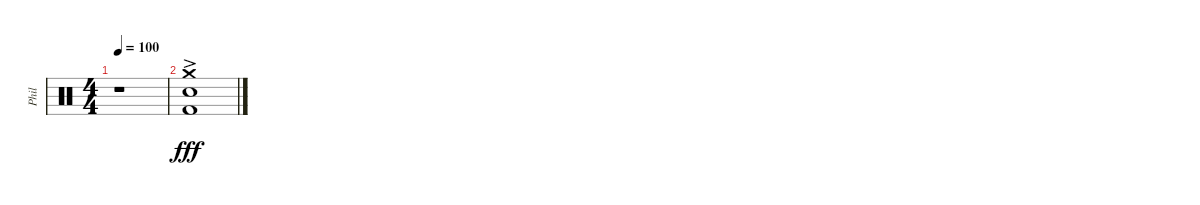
\track ("Phil" "Phil") {instrument percussion}
\staff {score}
\articulation defaults
\ts (4 4)
\tempo 100
\clef neutral
\ks c
r.1{dy fff} |
("Crash medium (hit)"{ac} "Snare (hit) 2"{ac} "Kick (hit) 2"{ac}).1
